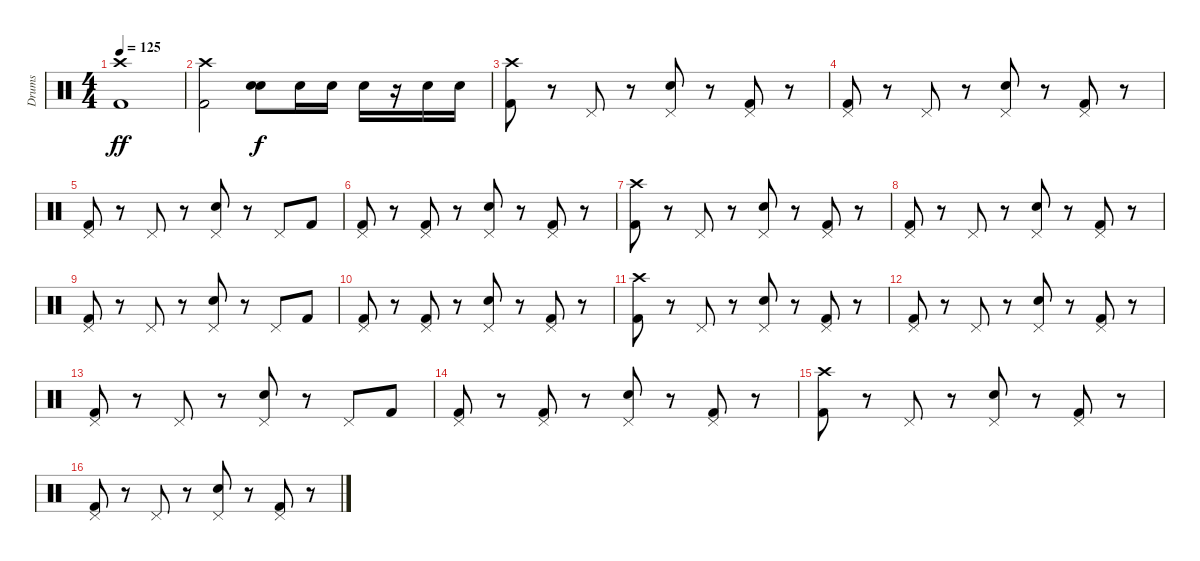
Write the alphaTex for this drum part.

\track ("Drums" "Drums") {instrument percussion}
\staff {score}
\articulation defaults
\ts (4 4)
\tempo 125
\clef neutral
\ks c
("Crash high (hit)" "Kick (hit) 2").1{dy ff} |
("Crash high (hit)" "Kick (hit) 2").2 ("Electric Snare (hit)" "Electric Snare (hit)").8{bd 240 dy f} "Electric Snare (hit)".16 "Electric Snare (hit)".16 "Electric Snare (hit)".16 r.16 "Electric Snare (hit)".16 "Electric Snare (hit)".16 |
("Crash high (hit)" "Kick (hit) 2").8 r.8 "Pedal Hi-Hat (hit)".8 r.8 ("Pedal Hi-Hat (hit)" "Electric Snare (hit)").8 r.8 ("Pedal Hi-Hat (hit)" "Kick (hit) 2").8 r.8 |
("Pedal Hi-Hat (hit)" "Kick (hit) 2").8 r.8 "Pedal Hi-Hat (hit)".8 r.8 ("Pedal Hi-Hat (hit)" "Electric Snare (hit)").8 r.8 ("Pedal Hi-Hat (hit)" "Kick (hit) 2").8 r.8 |
("Pedal Hi-Hat (hit)" "Kick (hit) 2").8 r.8 "Pedal Hi-Hat (hit)".8 r.8 ("Pedal Hi-Hat (hit)" "Electric Snare (hit)").8 r.8 "Pedal Hi-Hat (hit)".8 "Kick (hit) 2".8 |
("Pedal Hi-Hat (hit)" "Kick (hit) 2").8 r.8 ("Pedal Hi-Hat (hit)" "Kick (hit) 2").8 r.8 ("Pedal Hi-Hat (hit)" "Electric Snare (hit)").8 r.8 ("Pedal Hi-Hat (hit)" "Kick (hit) 2").8 r.8 |
("Crash high (hit)" "Kick (hit) 2").8 r.8 "Pedal Hi-Hat (hit)".8 r.8 ("Pedal Hi-Hat (hit)" "Electric Snare (hit)").8 r.8 ("Pedal Hi-Hat (hit)" "Kick (hit) 2").8 r.8 |
("Pedal Hi-Hat (hit)" "Kick (hit) 2").8 r.8 "Pedal Hi-Hat (hit)".8 r.8 ("Pedal Hi-Hat (hit)" "Electric Snare (hit)").8 r.8 ("Pedal Hi-Hat (hit)" "Kick (hit) 2").8 r.8 |
("Pedal Hi-Hat (hit)" "Kick (hit) 2").8 r.8 "Pedal Hi-Hat (hit)".8 r.8 ("Pedal Hi-Hat (hit)" "Electric Snare (hit)").8 r.8 "Pedal Hi-Hat (hit)".8 "Kick (hit) 2".8 |
("Pedal Hi-Hat (hit)" "Kick (hit) 2").8 r.8 ("Pedal Hi-Hat (hit)" "Kick (hit) 2").8 r.8 ("Pedal Hi-Hat (hit)" "Electric Snare (hit)").8 r.8 ("Pedal Hi-Hat (hit)" "Kick (hit) 2").8 r.8 |
("Crash high (hit)" "Kick (hit) 2").8 r.8 "Pedal Hi-Hat (hit)".8 r.8 ("Pedal Hi-Hat (hit)" "Electric Snare (hit)").8 r.8 ("Pedal Hi-Hat (hit)" "Kick (hit) 2").8 r.8 |
("Pedal Hi-Hat (hit)" "Kick (hit) 2").8 r.8 "Pedal Hi-Hat (hit)".8 r.8 ("Pedal Hi-Hat (hit)" "Electric Snare (hit)").8 r.8 ("Pedal Hi-Hat (hit)" "Kick (hit) 2").8 r.8 |
("Pedal Hi-Hat (hit)" "Kick (hit) 2").8 r.8 "Pedal Hi-Hat (hit)".8 r.8 ("Pedal Hi-Hat (hit)" "Electric Snare (hit)").8 r.8 "Pedal Hi-Hat (hit)".8 "Kick (hit) 2".8 |
("Pedal Hi-Hat (hit)" "Kick (hit) 2").8 r.8 ("Pedal Hi-Hat (hit)" "Kick (hit) 2").8 r.8 ("Pedal Hi-Hat (hit)" "Electric Snare (hit)").8 r.8 ("Pedal Hi-Hat (hit)" "Kick (hit) 2").8 r.8 |
("Crash high (hit)" "Kick (hit) 2").8 r.8 "Pedal Hi-Hat (hit)".8 r.8 ("Pedal Hi-Hat (hit)" "Electric Snare (hit)").8 r.8 ("Pedal Hi-Hat (hit)" "Kick (hit) 2").8 r.8 |
("Pedal Hi-Hat (hit)" "Kick (hit) 2").8 r.8 "Pedal Hi-Hat (hit)".8 r.8 ("Pedal Hi-Hat (hit)" "Electric Snare (hit)").8 r.8 ("Pedal Hi-Hat (hit)" "Kick (hit) 2").8 r.8
